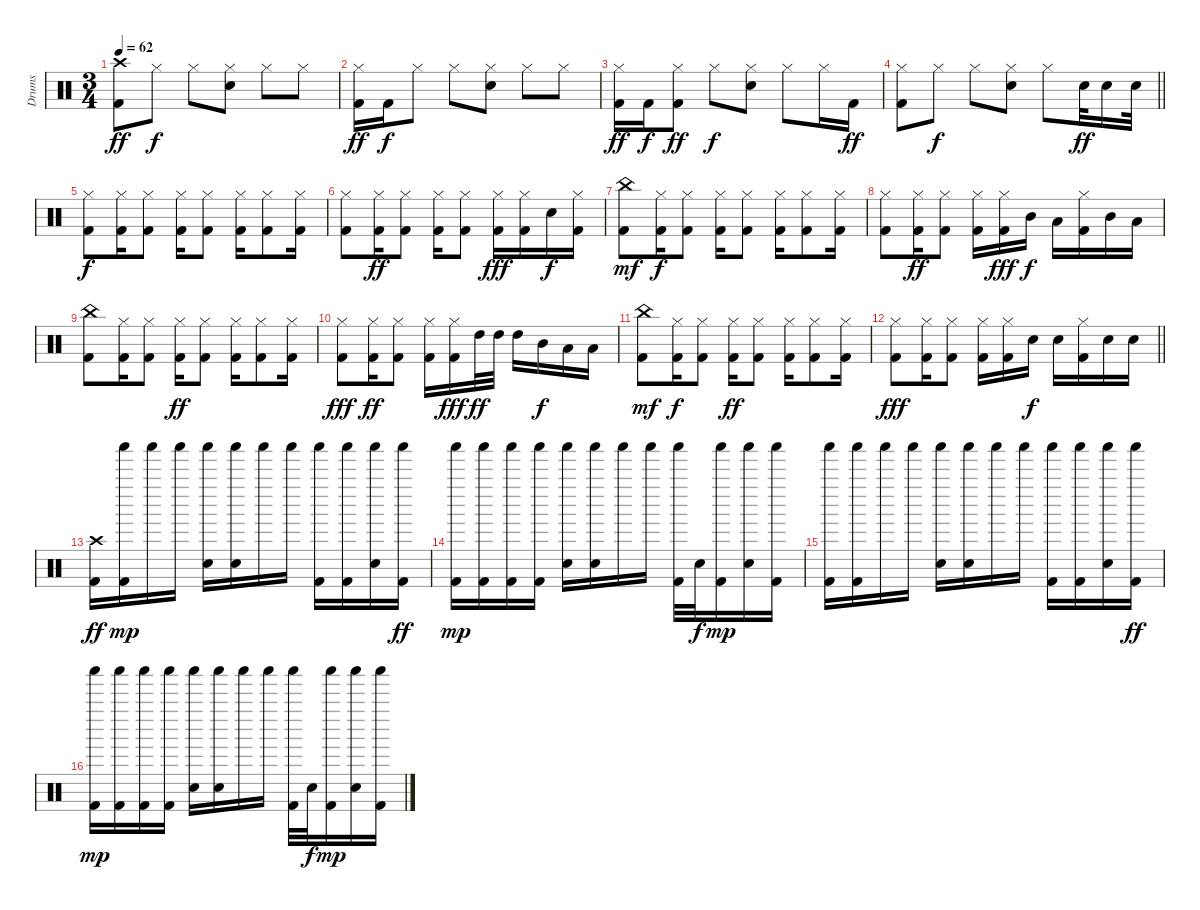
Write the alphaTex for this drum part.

\track ("Drums" "Drums") {instrument percussion}
\staff {score}
\articulation defaults
\ts (3 4)
\tempo 62
\clef neutral
\ks c
("Crash high (hit)" "Kick (hit) 2").8{dy ff} "Hi-Hat (closed)".8{dy f} "Hi-Hat (closed)".8 ("Hi-Hat (closed)" "Electric Snare (hit)").8 "Hi-Hat (closed)".8 "Hi-Hat (closed)".8 |
("Hi-Hat (closed)" "Kick (hit) 2").16{dy ff} "Kick (hit) 2".16{dy f} "Hi-Hat (closed)".8 "Hi-Hat (closed)".8 ("Hi-Hat (closed)" "Electric Snare (hit)").8 "Hi-Hat (closed)".8 "Hi-Hat (closed)".8 |
("Hi-Hat (closed)" "Kick (hit) 2").16{dy ff} "Kick (hit) 2".16{dy f} ("Hi-Hat (closed)" "Kick (hit) 2").8{dy ff} "Hi-Hat (closed)".8{dy f} ("Hi-Hat (closed)" "Electric Snare (hit)").8 "Hi-Hat (closed)".8 "Hi-Hat (closed)".16 "Kick (hit) 2".16{dy ff} |
\barLineRight lightlight
("Hi-Hat (closed)" "Kick (hit) 2").8 "Hi-Hat (closed)".8{dy f} "Hi-Hat (closed)".8 ("Hi-Hat (closed)" "Electric Snare (hit)").8 "Hi-Hat (closed)".8 "Electric Snare (hit)".32{dy ff} "Electric Snare (hit)".16 "Electric Snare (hit)".32 |
("Hi-Hat (closed)" "Kick (hit) 2").8{dy f} ("Hi-Hat (closed)" "Kick (hit) 2").16 ("Hi-Hat (closed)" "Kick (hit) 2").8 ("Hi-Hat (closed)" "Kick (hit) 2").16 ("Hi-Hat (closed)" "Kick (hit) 2").8 ("Hi-Hat (closed)" "Kick (hit) 2").16 ("Hi-Hat (closed)" "Kick (hit) 2").8 ("Hi-Hat (closed)" "Kick (hit) 2").16 |
("Hi-Hat (closed)" "Kick (hit) 2").8 ("Hi-Hat (closed)" "Kick (hit) 2").16{dy ff} ("Hi-Hat (closed)" "Kick (hit) 2").8 ("Hi-Hat (closed)" "Kick (hit) 2").16 ("Hi-Hat (closed)" "Kick (hit) 2").8 ("Hi-Hat (closed)" "Kick (hit) 2").16{dy fff} ("Hi-Hat (closed)" "Kick (hit) 2").16 "Electric Snare (hit)".16{dy f} ("Hi-Hat (closed)" "Kick (hit) 2").16 |
("China (hit)" "Kick (hit) 2").8{dy mf} ("Hi-Hat (closed)" "Kick (hit) 2").16{dy f} ("Hi-Hat (closed)" "Kick (hit) 2").8 ("Hi-Hat (closed)" "Kick (hit) 2").16 ("Hi-Hat (closed)" "Kick (hit) 2").8 ("Hi-Hat (closed)" "Kick (hit) 2").16 ("Hi-Hat (closed)" "Kick (hit) 2").8 ("Hi-Hat (closed)" "Kick (hit) 2").16 |
("Hi-Hat (closed)" "Kick (hit) 2").8 ("Hi-Hat (closed)" "Kick (hit) 2").16{dy ff} ("Hi-Hat (closed)" "Kick (hit) 2").8 ("Hi-Hat (closed)" "Kick (hit) 2").16 ("Hi-Hat (closed)" "Kick (hit) 2").16{dy fff} "Mid Tom (hit)".16{dy f} "Low Tom (hit)".16 ("Hi-Hat (closed)" "Kick (hit) 2").16 "Mid Tom (hit)".16 "Low Tom (hit)".16 |
("China (hit)" "Kick (hit) 2").8 ("Hi-Hat (closed)" "Kick (hit) 2").16 ("Hi-Hat (closed)" "Kick (hit) 2").8 ("Hi-Hat (closed)" "Kick (hit) 2").16{dy ff} ("Hi-Hat (closed)" "Kick (hit) 2").8 ("Hi-Hat (closed)" "Kick (hit) 2").16 ("Hi-Hat (closed)" "Kick (hit) 2").8 ("Hi-Hat (closed)" "Kick (hit) 2").16 |
("Hi-Hat (closed)" "Kick (hit) 2").8{dy fff} ("Hi-Hat (closed)" "Kick (hit) 2").16{dy ff} ("Hi-Hat (closed)" "Kick (hit) 2").8 ("Hi-Hat (closed)" "Kick (hit) 2").16 ("Hi-Hat (closed)" "Kick (hit) 2").16{dy fff} "High Tom (hit)".32{dy ff} "High Tom (hit)".32 "High Tom (hit)".16 "Mid Tom (hit)".16{dy f} "Low Tom (hit)".16 "Low Tom (hit)".16 |
("China (hit)" "Kick (hit) 2").8{dy mf} ("Hi-Hat (closed)" "Kick (hit) 2").16{dy f} ("Hi-Hat (closed)" "Kick (hit) 2").8 ("Hi-Hat (closed)" "Kick (hit) 2").16{dy ff} ("Hi-Hat (closed)" "Kick (hit) 2").8 ("Hi-Hat (closed)" "Kick (hit) 2").16 ("Hi-Hat (closed)" "Kick (hit) 2").8 ("Hi-Hat (closed)" "Kick (hit) 2").16 |
\barLineRight lightlight
("Hi-Hat (closed)" "Kick (hit) 2").8{dy fff} ("Hi-Hat (closed)" "Kick (hit) 2").16 ("Hi-Hat (closed)" "Kick (hit) 2").8 ("Hi-Hat (closed)" "Kick (hit) 2").16 ("Hi-Hat (closed)" "Kick (hit) 2").16 "Electric Snare (hit)".16{dy f} "Electric Snare (hit)".16 ("Hi-Hat (closed)" "Kick (hit) 2").16 "Electric Snare (hit)".16 "Electric Snare (hit)".16 |
("Crash high (hit)" "Kick (hit) 2").16{dy ff} ("Shaker (hit)" "Kick (hit) 2").16{dy mp} "Shaker (hit)".16 "Shaker (hit)".16 ("Shaker (hit)" "Electric Snare (hit)").16 ("Shaker (hit)" "Electric Snare (hit)").16 "Shaker (hit)".16 "Shaker (hit)".16 ("Shaker (hit)" "Kick (hit) 2").16 ("Shaker (hit)" "Kick (hit) 2").16 ("Shaker (hit)" "Electric Snare (hit)").16 ("Shaker (hit)" "Kick (hit) 2").16{dy ff} |
("Shaker (hit)" "Kick (hit) 2").16{dy mp} ("Shaker (hit)" "Kick (hit) 2").16 ("Shaker (hit)" "Kick (hit) 2").16 ("Shaker (hit)" "Kick (hit) 2").16 ("Shaker (hit)" "Electric Snare (hit)").16 ("Shaker (hit)" "Electric Snare (hit)").16 "Shaker (hit)".16 "Shaker (hit)".16 ("Shaker (hit)" "Kick (hit) 2").32 "Electric Snare (hit)".32{dy f} ("Shaker (hit)" "Kick (hit) 2").16{dy mp} ("Shaker (hit)" "Electric Snare (hit)").16 ("Shaker (hit)" "Kick (hit) 2").16 |
("Shaker (hit)" "Kick (hit) 2").16 ("Shaker (hit)" "Kick (hit) 2").16 "Shaker (hit)".16 "Shaker (hit)".16 ("Shaker (hit)" "Electric Snare (hit)").16 ("Shaker (hit)" "Electric Snare (hit)").16 "Shaker (hit)".16 "Shaker (hit)".16 ("Shaker (hit)" "Kick (hit) 2").16 ("Shaker (hit)" "Kick (hit) 2").16 ("Shaker (hit)" "Electric Snare (hit)").16 ("Shaker (hit)" "Kick (hit) 2").16{dy ff} |
("Shaker (hit)" "Kick (hit) 2").16{dy mp} ("Shaker (hit)" "Kick (hit) 2").16 ("Shaker (hit)" "Kick (hit) 2").16 ("Shaker (hit)" "Kick (hit) 2").16 ("Shaker (hit)" "Electric Snare (hit)").16 ("Shaker (hit)" "Electric Snare (hit)").16 "Shaker (hit)".16 "Shaker (hit)".16 ("Shaker (hit)" "Kick (hit) 2").32 "Electric Snare (hit)".32{dy f} ("Shaker (hit)" "Kick (hit) 2").16{dy mp} ("Shaker (hit)" "Electric Snare (hit)").16 ("Shaker (hit)" "Kick (hit) 2").16
